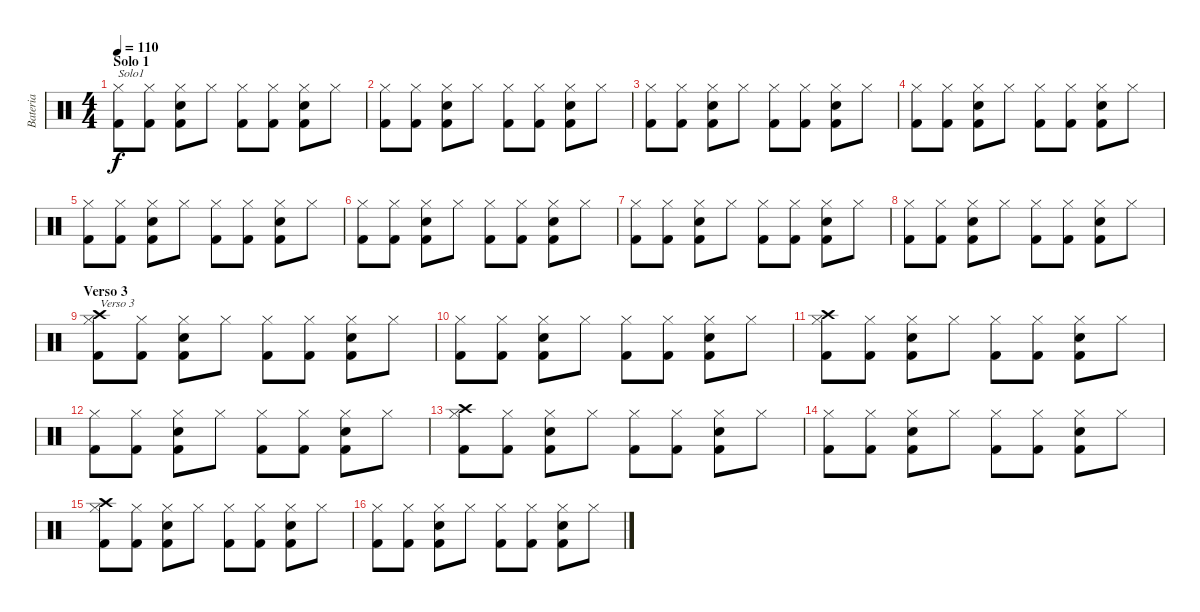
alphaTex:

\track ("Bateria" "Bateria") {instrument percussion}
\staff {score}
\articulation defaults
\ts (4 4)
\section ("" "Solo 1")
\tempo 110
\clef neutral
\ks c
("Hi-Hat (closed)" "Kick (hit) 2").8{txt "Solo1" dy f} ("Hi-Hat (closed)" "Kick (hit) 2").8 ("Hi-Hat (closed)" "Kick (hit) 2" "Metronome (bell)").8 "Hi-Hat (closed)".8 ("Hi-Hat (closed)" "Kick (hit) 2").8 ("Hi-Hat (closed)" "Kick (hit) 2").8 ("Hi-Hat (closed)" "Kick (hit) 2" "Metronome (bell)").8 "Hi-Hat (closed)".8 |
("Hi-Hat (closed)" "Kick (hit) 2").8 ("Hi-Hat (closed)" "Kick (hit) 2").8 ("Hi-Hat (closed)" "Kick (hit) 2" "Metronome (bell)").8 "Hi-Hat (closed)".8 ("Hi-Hat (closed)" "Kick (hit) 2").8 ("Hi-Hat (closed)" "Kick (hit) 2").8 ("Hi-Hat (closed)" "Kick (hit) 2" "Metronome (bell)").8 "Hi-Hat (closed)".8 |
("Hi-Hat (closed)" "Kick (hit) 2").8 ("Hi-Hat (closed)" "Kick (hit) 2").8 ("Hi-Hat (closed)" "Kick (hit) 2" "Metronome (bell)").8 "Hi-Hat (closed)".8 ("Hi-Hat (closed)" "Kick (hit) 2").8 ("Hi-Hat (closed)" "Kick (hit) 2").8 ("Hi-Hat (closed)" "Kick (hit) 2" "Metronome (bell)").8 "Hi-Hat (closed)".8 |
("Hi-Hat (closed)" "Kick (hit) 2").8 ("Hi-Hat (closed)" "Kick (hit) 2").8 ("Hi-Hat (closed)" "Kick (hit) 2" "Metronome (bell)").8 "Hi-Hat (closed)".8 ("Hi-Hat (closed)" "Kick (hit) 2").8 ("Hi-Hat (closed)" "Kick (hit) 2").8 ("Hi-Hat (closed)" "Kick (hit) 2" "Metronome (bell)").8 "Hi-Hat (closed)".8 |
("Hi-Hat (closed)" "Kick (hit) 2").8 ("Hi-Hat (closed)" "Kick (hit) 2").8 ("Hi-Hat (closed)" "Kick (hit) 2" "Metronome (bell)").8 "Hi-Hat (closed)".8 ("Hi-Hat (closed)" "Kick (hit) 2").8 ("Hi-Hat (closed)" "Kick (hit) 2").8 ("Hi-Hat (closed)" "Kick (hit) 2" "Metronome (bell)").8 "Hi-Hat (closed)".8 |
("Hi-Hat (closed)" "Kick (hit) 2").8 ("Hi-Hat (closed)" "Kick (hit) 2").8 ("Hi-Hat (closed)" "Kick (hit) 2" "Metronome (bell)").8 "Hi-Hat (closed)".8 ("Hi-Hat (closed)" "Kick (hit) 2").8 ("Hi-Hat (closed)" "Kick (hit) 2").8 ("Hi-Hat (closed)" "Kick (hit) 2" "Metronome (bell)").8 "Hi-Hat (closed)".8 |
("Hi-Hat (closed)" "Kick (hit) 2").8 ("Hi-Hat (closed)" "Kick (hit) 2").8 ("Hi-Hat (closed)" "Kick (hit) 2" "Metronome (bell)").8 "Hi-Hat (closed)".8 ("Hi-Hat (closed)" "Kick (hit) 2").8 ("Hi-Hat (closed)" "Kick (hit) 2").8 ("Hi-Hat (closed)" "Kick (hit) 2" "Metronome (bell)").8 "Hi-Hat (closed)".8 |
("Hi-Hat (closed)" "Kick (hit) 2").8 ("Hi-Hat (closed)" "Kick (hit) 2").8 ("Hi-Hat (closed)" "Kick (hit) 2" "Metronome (bell)").8 "Hi-Hat (closed)".8 ("Hi-Hat (closed)" "Kick (hit) 2").8 ("Hi-Hat (closed)" "Kick (hit) 2").8 ("Hi-Hat (closed)" "Kick (hit) 2" "Metronome (bell)").8 "Hi-Hat (closed)".8 |
\section ("" "Verso 3")
("Hi-Hat (closed)" "Kick (hit) 2" "Crash high (hit)").8{txt "Verso 3"} ("Hi-Hat (closed)" "Kick (hit) 2").8 ("Hi-Hat (closed)" "Kick (hit) 2" "Metronome (bell)").8 "Hi-Hat (closed)".8 ("Hi-Hat (closed)" "Kick (hit) 2").8 ("Hi-Hat (closed)" "Kick (hit) 2").8 ("Hi-Hat (closed)" "Kick (hit) 2" "Metronome (bell)").8 "Hi-Hat (closed)".8 |
("Hi-Hat (closed)" "Kick (hit) 2").8 ("Hi-Hat (closed)" "Kick (hit) 2").8 ("Hi-Hat (closed)" "Kick (hit) 2" "Metronome (bell)").8 "Hi-Hat (closed)".8 ("Hi-Hat (closed)" "Kick (hit) 2").8 ("Hi-Hat (closed)" "Kick (hit) 2").8 ("Hi-Hat (closed)" "Kick (hit) 2" "Metronome (bell)").8 "Hi-Hat (closed)".8 |
("Hi-Hat (closed)" "Kick (hit) 2" "Crash high (hit)").8 ("Hi-Hat (closed)" "Kick (hit) 2").8 ("Hi-Hat (closed)" "Kick (hit) 2" "Metronome (bell)").8 "Hi-Hat (closed)".8 ("Hi-Hat (closed)" "Kick (hit) 2").8 ("Hi-Hat (closed)" "Kick (hit) 2").8 ("Hi-Hat (closed)" "Kick (hit) 2" "Metronome (bell)").8 "Hi-Hat (closed)".8 |
("Hi-Hat (closed)" "Kick (hit) 2").8 ("Hi-Hat (closed)" "Kick (hit) 2").8 ("Hi-Hat (closed)" "Kick (hit) 2" "Metronome (bell)").8 "Hi-Hat (closed)".8 ("Hi-Hat (closed)" "Kick (hit) 2").8 ("Hi-Hat (closed)" "Kick (hit) 2").8 ("Hi-Hat (closed)" "Kick (hit) 2" "Metronome (bell)").8 "Hi-Hat (closed)".8 |
("Hi-Hat (closed)" "Kick (hit) 2" "Crash high (hit)").8 ("Hi-Hat (closed)" "Kick (hit) 2").8 ("Hi-Hat (closed)" "Kick (hit) 2" "Metronome (bell)").8 "Hi-Hat (closed)".8 ("Hi-Hat (closed)" "Kick (hit) 2").8 ("Hi-Hat (closed)" "Kick (hit) 2").8 ("Hi-Hat (closed)" "Kick (hit) 2" "Metronome (bell)").8 "Hi-Hat (closed)".8 |
("Hi-Hat (closed)" "Kick (hit) 2").8 ("Hi-Hat (closed)" "Kick (hit) 2").8 ("Hi-Hat (closed)" "Kick (hit) 2" "Metronome (bell)").8 "Hi-Hat (closed)".8 ("Hi-Hat (closed)" "Kick (hit) 2").8 ("Hi-Hat (closed)" "Kick (hit) 2").8 ("Hi-Hat (closed)" "Kick (hit) 2" "Metronome (bell)").8 "Hi-Hat (closed)".8 |
("Hi-Hat (closed)" "Kick (hit) 2" "Crash high (hit)").8 ("Hi-Hat (closed)" "Kick (hit) 2").8 ("Hi-Hat (closed)" "Kick (hit) 2" "Metronome (bell)").8 "Hi-Hat (closed)".8 ("Hi-Hat (closed)" "Kick (hit) 2").8 ("Hi-Hat (closed)" "Kick (hit) 2").8 ("Hi-Hat (closed)" "Kick (hit) 2" "Metronome (bell)").8 "Hi-Hat (closed)".8 |
("Hi-Hat (closed)" "Kick (hit) 2").8 ("Hi-Hat (closed)" "Kick (hit) 2").8 ("Hi-Hat (closed)" "Kick (hit) 2" "Metronome (bell)").8 "Hi-Hat (closed)".8 ("Hi-Hat (closed)" "Kick (hit) 2").8 ("Hi-Hat (closed)" "Kick (hit) 2").8 ("Hi-Hat (closed)" "Kick (hit) 2" "Metronome (bell)").8 "Hi-Hat (closed)".8
